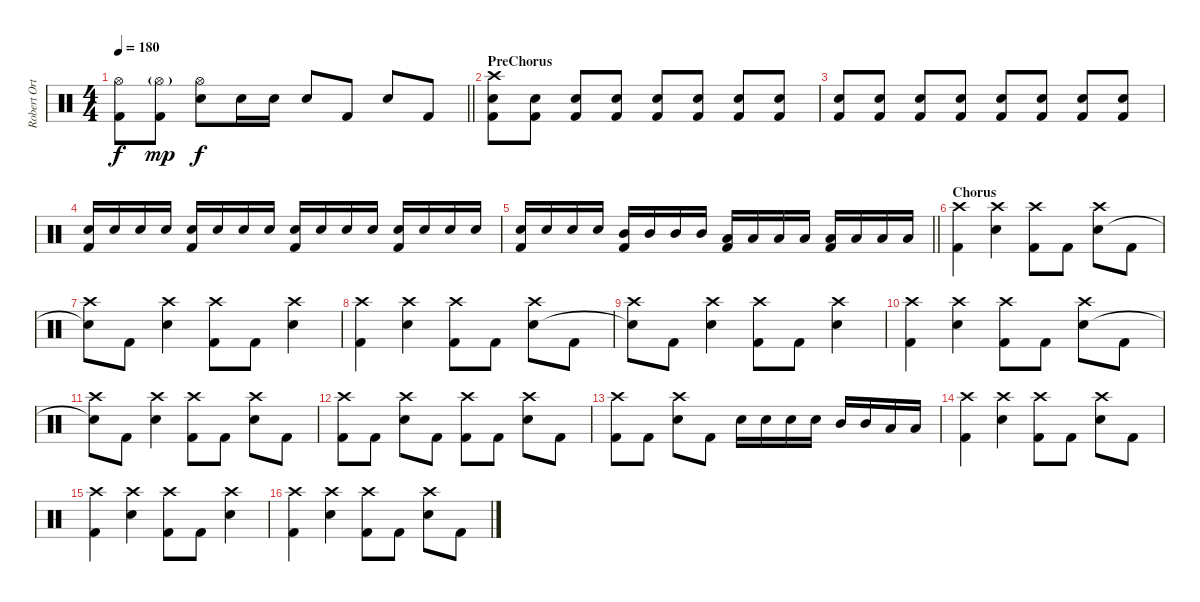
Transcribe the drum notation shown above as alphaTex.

\track ("Robert Ortiz [Drums]" "Robert Ort") {instrument percussion}
\staff {score}
\articulation defaults
\ts (4 4)
\tempo 180
\clef neutral
\barLineRight lightlight
\ks c
("Hi-Hat (open)" "Kick (hit) 2").8{dy f} ("Hi-Hat (open)"{g} "Kick (hit) 2").8{dy mp} ("Hi-Hat (open)" "Electric Snare (hit)").8{dy f} "Electric Snare (hit)".16 "Electric Snare (hit)".16 "Electric Snare (hit)".8 "Kick (hit) 2".8 "Electric Snare (hit)".8 "Kick (hit) 2".8 |
\section ("" "PreChorus")
("Crash high (hit)" "Electric Snare (hit)" "Kick (hit) 2").8 ("Electric Snare (hit)" "Kick (hit) 2").8 ("Electric Snare (hit)" "Kick (hit) 2").8 ("Electric Snare (hit)" "Kick (hit) 2").8 ("Electric Snare (hit)" "Kick (hit) 2").8 ("Electric Snare (hit)" "Kick (hit) 2").8 ("Electric Snare (hit)" "Kick (hit) 2").8 ("Electric Snare (hit)" "Kick (hit) 2").8 |
("Electric Snare (hit)" "Kick (hit) 2").8 ("Electric Snare (hit)" "Kick (hit) 2").8 ("Electric Snare (hit)" "Kick (hit) 2").8 ("Electric Snare (hit)" "Kick (hit) 2").8 ("Electric Snare (hit)" "Kick (hit) 2").8 ("Electric Snare (hit)" "Kick (hit) 2").8 ("Electric Snare (hit)" "Kick (hit) 2").8 ("Electric Snare (hit)" "Kick (hit) 2").8 |
("Electric Snare (hit)" "Kick (hit) 2").16 "Electric Snare (hit)".16 "Electric Snare (hit)".16 "Electric Snare (hit)".16 ("Electric Snare (hit)" "Kick (hit) 2").16 "Electric Snare (hit)".16 "Electric Snare (hit)".16 "Electric Snare (hit)".16 ("Electric Snare (hit)" "Kick (hit) 2").16 "Electric Snare (hit)".16 "Electric Snare (hit)".16 "Electric Snare (hit)".16 ("Electric Snare (hit)" "Kick (hit) 2").16 "Electric Snare (hit)".16 "Electric Snare (hit)".16 "Electric Snare (hit)".16 |
\barLineRight lightlight
("Electric Snare (hit)" "Kick (hit) 2").16 "Electric Snare (hit)".16 "Electric Snare (hit)".16 "Electric Snare (hit)".16 ("Mid Tom (hit)" "Kick (hit) 2").16 "Mid Tom (hit)".16 "Mid Tom (hit)".16 "Mid Tom (hit)".16 ("Low Tom (hit)" "Kick (hit) 2").16 "Low Tom (hit)".16 "Low Tom (hit)".16 "Low Tom (hit)".16 ("Low Floor Tom (hit)" "Kick (hit) 2").16 "Low Floor Tom (hit)".16 "Low Floor Tom (hit)".16 "Low Floor Tom (hit)".16 |
\section ("" "Chorus")
("Crash high (hit)" "Kick (hit) 2").4 ("Crash high (hit)" "Electric Snare (hit)").4 ("Crash high (hit)" "Kick (hit) 2").8 "Kick (hit) 2".8 ("Crash high (hit)" "Electric Snare (hit)").8 "Kick (hit) 2".8 |
("Crash high (hit)" "Snare (hit)"{t}).8 "Kick (hit) 2".8 ("Crash high (hit)" "Electric Snare (hit)").4 ("Crash high (hit)" "Kick (hit) 2").8 "Kick (hit) 2".8 ("Crash high (hit)" "Electric Snare (hit)").4 |
("Crash high (hit)" "Kick (hit) 2").4 ("Crash high (hit)" "Electric Snare (hit)").4 ("Crash high (hit)" "Kick (hit) 2").8 "Kick (hit) 2".8 ("Crash high (hit)" "Electric Snare (hit)").8 "Kick (hit) 2".8 |
("Crash high (hit)" "Snare (hit)"{t}).8 "Kick (hit) 2".8 ("Crash high (hit)" "Electric Snare (hit)").4 ("Crash high (hit)" "Kick (hit) 2").8 "Kick (hit) 2".8 ("Crash high (hit)" "Electric Snare (hit)").4 |
("Crash high (hit)" "Kick (hit) 2").4 ("Crash high (hit)" "Electric Snare (hit)").4 ("Crash high (hit)" "Kick (hit) 2").8 "Kick (hit) 2".8 ("Crash high (hit)" "Electric Snare (hit)").8 "Kick (hit) 2".8 |
("Crash high (hit)" "Snare (hit)"{t}).8 "Kick (hit) 2".8 ("Crash high (hit)" "Electric Snare (hit)").4 ("Crash high (hit)" "Kick (hit) 2").8 "Kick (hit) 2".8 ("Crash high (hit)" "Electric Snare (hit)").8 "Kick (hit) 2".8 |
("Crash high (hit)" "Kick (hit) 2").8 "Kick (hit) 2".8 ("Crash high (hit)" "Electric Snare (hit)").8 "Kick (hit) 2".8 ("Crash high (hit)" "Kick (hit) 2").8 "Kick (hit) 2".8 ("Crash high (hit)" "Electric Snare (hit)").8 "Kick (hit) 2".8 |
("Crash high (hit)" "Kick (hit) 2").8 "Kick (hit) 2".8 ("Crash high (hit)" "Electric Snare (hit)").8 "Kick (hit) 2".8 "Electric Snare (hit)".16 "Electric Snare (hit)".16 "Electric Snare (hit)".16 "Electric Snare (hit)".16 "Mid Tom (hit)".16 "Mid Tom (hit)".16 "Low Tom (hit)".16 "Low Tom (hit)".16 |
("Crash high (hit)" "Kick (hit) 2").4 ("Crash high (hit)" "Electric Snare (hit)").4 ("Crash high (hit)" "Kick (hit) 2").8 "Kick (hit) 2".8 ("Crash high (hit)" "Electric Snare (hit)").8 "Kick (hit) 2".8 |
("Crash high (hit)" "Kick (hit) 2").4 ("Crash high (hit)" "Electric Snare (hit)").4 ("Crash high (hit)" "Kick (hit) 2").8 "Kick (hit) 2".8 ("Crash high (hit)" "Electric Snare (hit)").4 |
("Crash high (hit)" "Kick (hit) 2").4 ("Crash high (hit)" "Electric Snare (hit)").4 ("Crash high (hit)" "Kick (hit) 2").8 "Kick (hit) 2".8 ("Crash high (hit)" "Electric Snare (hit)").8 "Kick (hit) 2".8
